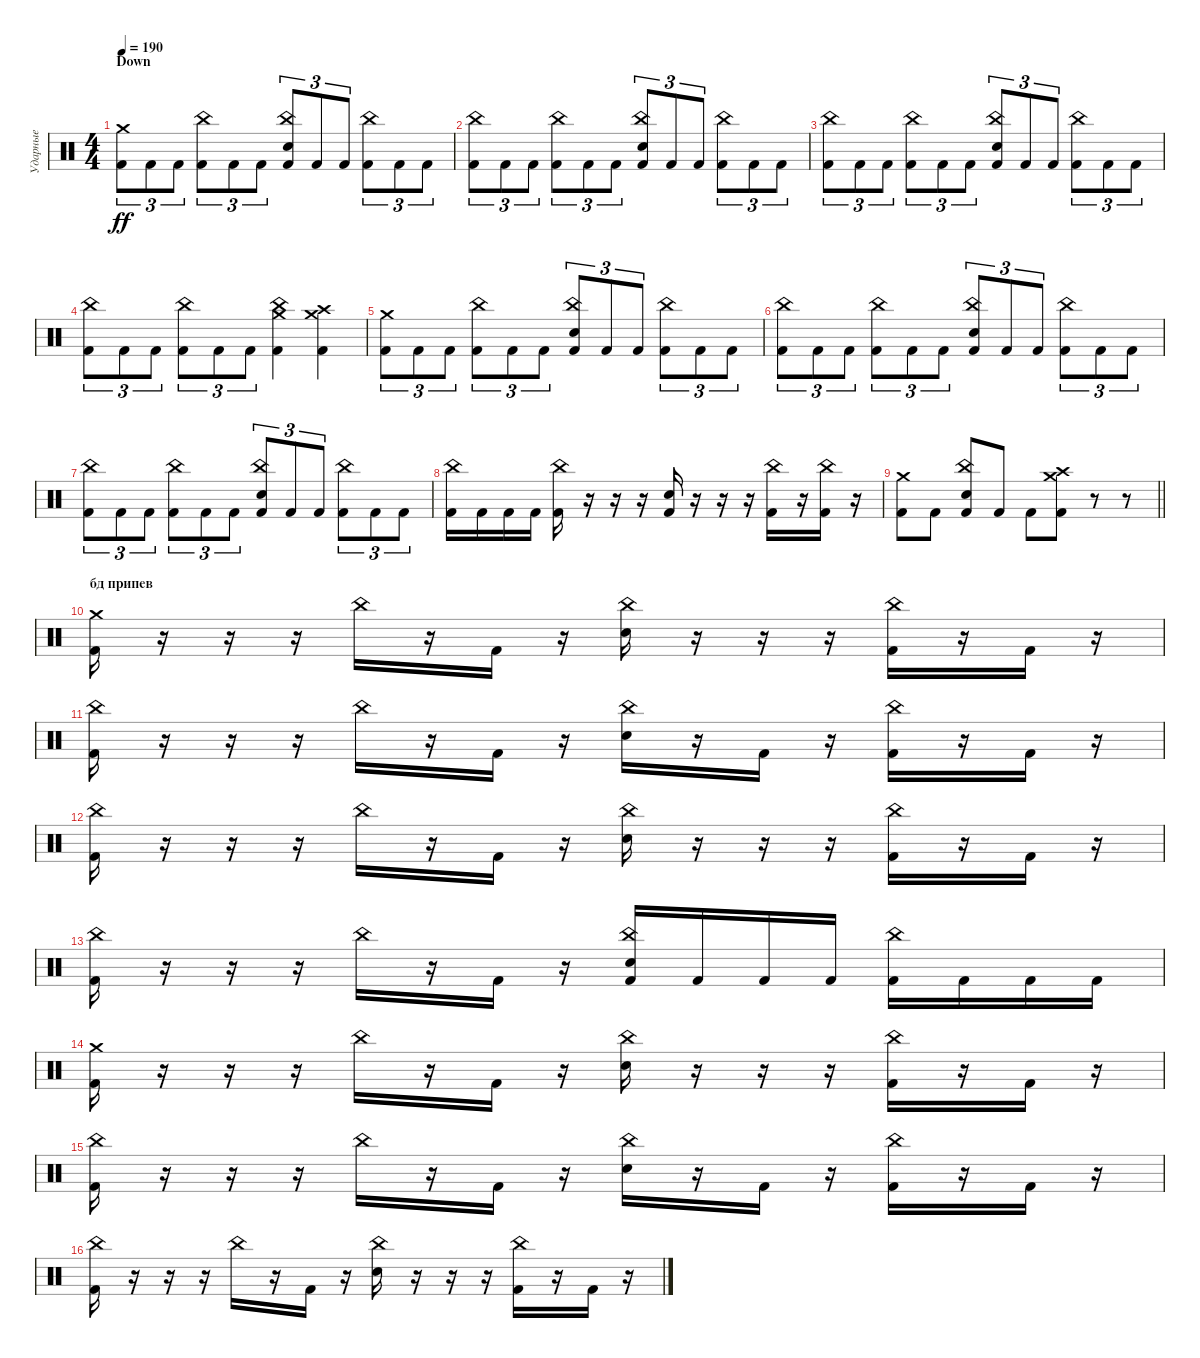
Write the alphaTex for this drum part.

\track ("Ударные" "Ударные") {instrument percussion}
\staff {score}
\articulation defaults
\ts (4 4)
\section ("" "Down")
\tempo 190
\clef neutral
\ks c
("Kick (hit) 2" "Crash medium (hit)").8{tu (3 2) dy ff} "Kick (hit) 2".8{tu (3 2)} "Kick (hit) 2".8{tu (3 2)} ("Kick (hit) 2" "China (hit)").8{tu (3 2)} "Kick (hit) 2".8{tu (3 2)} "Kick (hit) 2".8{tu (3 2)} ("Kick (hit) 2" "Snare (hit) 2" "China (hit)").8{tu (3 2)} "Kick (hit) 2".8{tu (3 2)} "Kick (hit) 2".8{tu (3 2)} ("Kick (hit) 2" "China (hit)").8{tu (3 2)} "Kick (hit) 2".8{tu (3 2)} "Kick (hit) 2".8{tu (3 2)} |
("Kick (hit) 2" "China (hit)").8{tu (3 2)} "Kick (hit) 2".8{tu (3 2)} "Kick (hit) 2".8{tu (3 2)} ("Kick (hit) 2" "China (hit)").8{tu (3 2)} "Kick (hit) 2".8{tu (3 2)} "Kick (hit) 2".8{tu (3 2)} ("Kick (hit) 2" "Snare (hit) 2" "China (hit)").8{tu (3 2)} "Kick (hit) 2".8{tu (3 2)} "Kick (hit) 2".8{tu (3 2)} ("Kick (hit) 2" "China (hit)").8{tu (3 2)} "Kick (hit) 2".8{tu (3 2)} "Kick (hit) 2".8{tu (3 2)} |
("Kick (hit) 2" "China (hit)").8{tu (3 2)} "Kick (hit) 2".8{tu (3 2)} "Kick (hit) 2".8{tu (3 2)} ("Kick (hit) 2" "China (hit)").8{tu (3 2)} "Kick (hit) 2".8{tu (3 2)} "Kick (hit) 2".8{tu (3 2)} ("Kick (hit) 2" "Snare (hit) 2" "China (hit)").8{tu (3 2)} "Kick (hit) 2".8{tu (3 2)} "Kick (hit) 2".8{tu (3 2)} ("Kick (hit) 2" "China (hit)").8{tu (3 2)} "Kick (hit) 2".8{tu (3 2)} "Kick (hit) 2".8{tu (3 2)} |
("Kick (hit) 2" "China (hit)").8{tu (3 2)} "Kick (hit) 2".8{tu (3 2)} "Kick (hit) 2".8{tu (3 2)} ("Kick (hit) 2" "China (hit)").8{tu (3 2)} "Kick (hit) 2".8{tu (3 2)} "Kick (hit) 2".8{tu (3 2)} ("Kick (hit) 2" "Crash medium (hit)" "China (hit)").4 ("Kick (hit) 2" "Crash high (hit)" "Crash medium (hit)").4 |
("Kick (hit) 2" "Crash medium (hit)").8{tu (3 2)} "Kick (hit) 2".8{tu (3 2)} "Kick (hit) 2".8{tu (3 2)} ("Kick (hit) 2" "China (hit)").8{tu (3 2)} "Kick (hit) 2".8{tu (3 2)} "Kick (hit) 2".8{tu (3 2)} ("Kick (hit) 2" "Snare (hit) 2" "China (hit)").8{tu (3 2)} "Kick (hit) 2".8{tu (3 2)} "Kick (hit) 2".8{tu (3 2)} ("Kick (hit) 2" "China (hit)").8{tu (3 2)} "Kick (hit) 2".8{tu (3 2)} "Kick (hit) 2".8{tu (3 2)} |
("Kick (hit) 2" "China (hit)").8{tu (3 2)} "Kick (hit) 2".8{tu (3 2)} "Kick (hit) 2".8{tu (3 2)} ("Kick (hit) 2" "China (hit)").8{tu (3 2)} "Kick (hit) 2".8{tu (3 2)} "Kick (hit) 2".8{tu (3 2)} ("Kick (hit) 2" "Snare (hit) 2" "China (hit)").8{tu (3 2)} "Kick (hit) 2".8{tu (3 2)} "Kick (hit) 2".8{tu (3 2)} ("Kick (hit) 2" "China (hit)").8{tu (3 2)} "Kick (hit) 2".8{tu (3 2)} "Kick (hit) 2".8{tu (3 2)} |
("Kick (hit) 2" "China (hit)").8{tu (3 2)} "Kick (hit) 2".8{tu (3 2)} "Kick (hit) 2".8{tu (3 2)} ("Kick (hit) 2" "China (hit)").8{tu (3 2)} "Kick (hit) 2".8{tu (3 2)} "Kick (hit) 2".8{tu (3 2)} ("Kick (hit) 2" "Snare (hit) 2" "China (hit)").8{tu (3 2)} "Kick (hit) 2".8{tu (3 2)} "Kick (hit) 2".8{tu (3 2)} ("Kick (hit) 2" "China (hit)").8{tu (3 2)} "Kick (hit) 2".8{tu (3 2)} "Kick (hit) 2".8{tu (3 2)} |
("Kick (hit) 2" "China (hit)").16 "Kick (hit) 2".16 "Kick (hit) 2".16 "Kick (hit) 2".16 ("Kick (hit) 2" "China (hit)").16 r.16 r.16 r.16 ("Kick (hit) 2" "Snare (hit) 2").16 r.16 r.16 r.16 ("Kick (hit) 2" "China (hit)").16 r.16 ("Kick (hit) 2" "China (hit)").16 r.16 |
\barLineRight lightlight
("Kick (hit) 2" "Crash medium (hit)").8 "Kick (hit) 2".8 ("Snare (hit) 2" "China (hit)" "Kick (hit) 2").8 "Kick (hit) 2".8 "Kick (hit) 2".8 ("Crash high (hit)" "Crash medium (hit)" "Kick (hit) 2").8 r.8 r.8 |
\section ("" "бд припев")
("Kick (hit) 2" "Crash medium (hit)").16 r.16 r.16 r.16 "China (hit)".16 r.16 "Kick (hit) 2".16 r.16 ("Snare (hit) 2" "China (hit)").16 r.16 r.16 r.16 ("Kick (hit) 2" "China (hit)").16 r.16 "Kick (hit) 2".16 r.16 |
("Kick (hit) 2" "China (hit)").16 r.16 r.16 r.16 "China (hit)".16 r.16 "Kick (hit) 2".16 r.16 ("Snare (hit) 2" "China (hit)").16 r.16 "Kick (hit) 2".16 r.16 ("Kick (hit) 2" "China (hit)").16 r.16 "Kick (hit) 2".16 r.16 |
("Kick (hit) 2" "China (hit)").16 r.16 r.16 r.16 "China (hit)".16 r.16 "Kick (hit) 2".16 r.16 ("Snare (hit) 2" "China (hit)").16 r.16 r.16 r.16 ("Kick (hit) 2" "China (hit)").16 r.16 "Kick (hit) 2".16 r.16 |
("Kick (hit) 2" "China (hit)").16 r.16 r.16 r.16 "China (hit)".16 r.16 "Kick (hit) 2".16 r.16 ("Snare (hit) 2" "Kick (hit) 2" "China (hit)").16 "Kick (hit) 2".16 "Kick (hit) 2".16 "Kick (hit) 2".16 ("China (hit)" "Kick (hit) 2").16 "Kick (hit) 2".16 "Kick (hit) 2".16 "Kick (hit) 2".16 |
("Kick (hit) 2" "Crash medium (hit)").16 r.16 r.16 r.16 "China (hit)".16 r.16 "Kick (hit) 2".16 r.16 ("Snare (hit) 2" "China (hit)").16 r.16 r.16 r.16 ("Kick (hit) 2" "China (hit)").16 r.16 "Kick (hit) 2".16 r.16 |
("Kick (hit) 2" "China (hit)").16 r.16 r.16 r.16 "China (hit)".16 r.16 "Kick (hit) 2".16 r.16 ("Snare (hit) 2" "China (hit)").16 r.16 "Kick (hit) 2".16 r.16 ("Kick (hit) 2" "China (hit)").16 r.16 "Kick (hit) 2".16 r.16 |
("Kick (hit) 2" "China (hit)").16 r.16 r.16 r.16 "China (hit)".16 r.16 "Kick (hit) 2".16 r.16 ("Snare (hit) 2" "China (hit)").16 r.16 r.16 r.16 ("Kick (hit) 2" "China (hit)").16 r.16 "Kick (hit) 2".16 r.16
